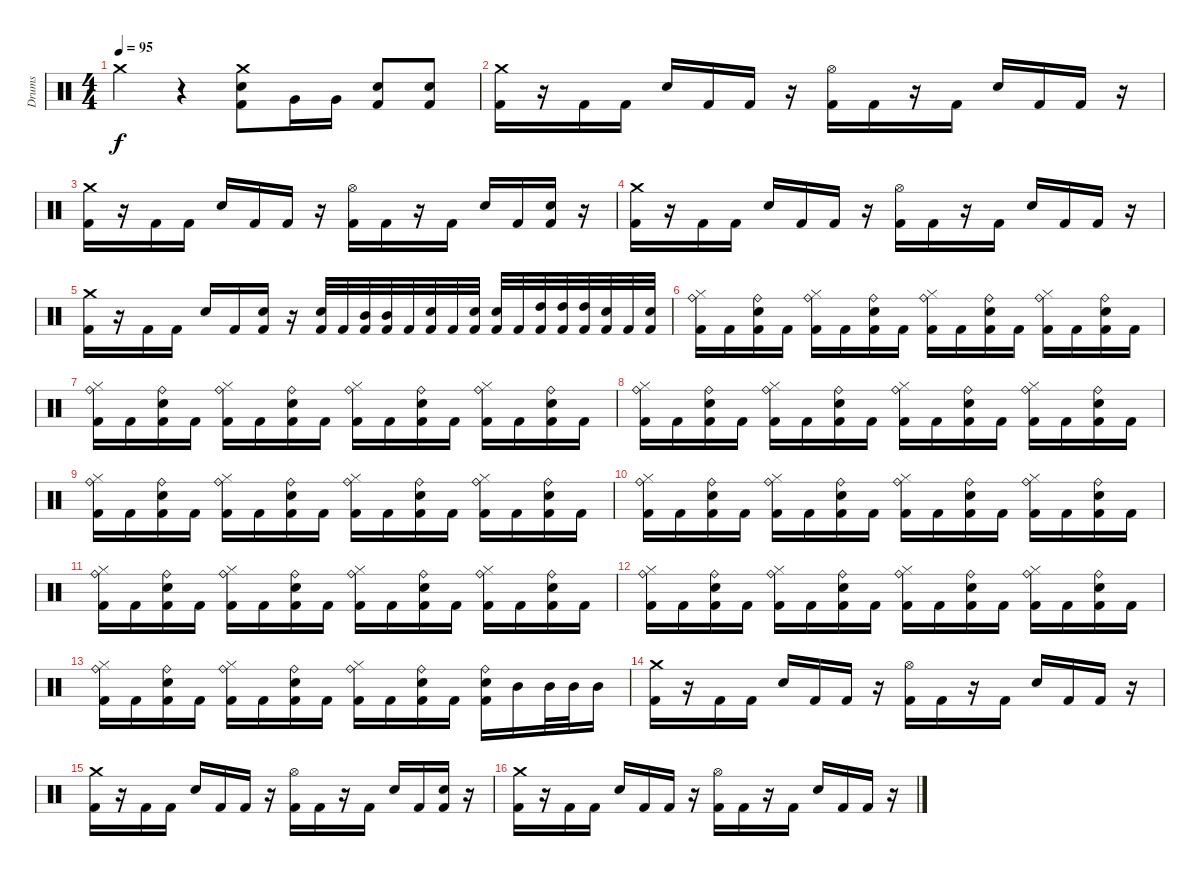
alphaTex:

\track ("Drums" "Drums") {instrument percussion}
\staff {score}
\articulation defaults
\ts (4 4)
\tempo 95
\clef neutral
\ks c "Crash medium (hit)".4{dy f}
r.4 ("Kick (hit) 2" "Snare (hit) 2" "Crash medium (hit)").8 "Very Low Tom (hit)".16 "Very Low Tom (hit)".16 ("Kick (hit) 2" "Snare (hit) 2").8 ("Kick (hit) 2" "Snare (hit) 2").8 |
("Kick (hit) 2" "Crash medium (hit)").16 r.16 "Kick (hit) 2".16 "Kick (hit) 2".16 "Snare (hit) 2".16 "Kick (hit) 2".16 "Kick (hit) 2".16 r.16 ("Kick (hit) 2" "Hi-Hat (open)").16 "Kick (hit) 2".16 r.16 "Kick (hit) 2".16 "Snare (hit) 2".16 "Kick (hit) 2".16 "Kick (hit) 2".16 r.16 |
("Kick (hit) 2" "Crash medium (hit)").16 r.16 "Kick (hit) 2".16 "Kick (hit) 2".16 "Snare (hit) 2".16 "Kick (hit) 2".16 "Kick (hit) 2".16 r.16 ("Kick (hit) 2" "Hi-Hat (open)").16 "Kick (hit) 2".16 r.16 "Kick (hit) 2".16 "Snare (hit) 2".16 "Kick (hit) 2".16 ("Kick (hit) 2" "Snare (hit) 2").16 r.16 |
("Kick (hit) 2" "Crash medium (hit)").16 r.16 "Kick (hit) 2".16 "Kick (hit) 2".16 "Snare (hit) 2".16 "Kick (hit) 2".16 "Kick (hit) 2".16 r.16 ("Kick (hit) 2" "Hi-Hat (open)").16 "Kick (hit) 2".16 r.16 "Kick (hit) 2".16 "Snare (hit) 2".16 "Kick (hit) 2".16 "Kick (hit) 2".16 r.16 |
("Kick (hit) 2" "Crash medium (hit)").16 r.16 "Kick (hit) 2".16 "Kick (hit) 2".16 "Snare (hit) 2".16 "Kick (hit) 2".16 ("Kick (hit) 2" "Snare (hit) 2").16 r.16 ("Kick (hit) 2" "Snare (hit) 2").32 "Kick (hit) 2".32 ("Kick (hit) 2" "Mid Tom (hit)").32 ("Kick (hit) 2" "Mid Tom (hit)").32 "Kick (hit) 2".32 ("Kick (hit) 2" "Snare (hit) 2").32 "Kick (hit) 2".32 ("Kick (hit) 2" "Snare (hit) 2").32 ("Kick (hit) 2" "Snare (hit) 2").32 "Kick (hit) 2".32 ("Kick (hit) 2" "High Tom (hit)").32 ("Kick (hit) 2" "High Tom (hit)").32 ("Kick (hit) 2" "High Tom (hit)").32 ("Kick (hit) 2" "Snare (hit) 2").32 "Kick (hit) 2".32 ("Kick (hit) 2" "Snare (hit) 2").32 |
("Kick (hit) 2" "Hi-Hat (closed)" "Ride (bell)").16 "Kick (hit) 2".16 ("Kick (hit) 2" "Snare (hit) 2" "Ride (bell)").16 "Kick (hit) 2".16 ("Kick (hit) 2" "Hi-Hat (closed)" "Ride (bell)").16 "Kick (hit) 2".16 ("Kick (hit) 2" "Snare (hit) 2" "Ride (bell)").16 "Kick (hit) 2".16 ("Kick (hit) 2" "Hi-Hat (closed)" "Ride (bell)").16 "Kick (hit) 2".16 ("Kick (hit) 2" "Snare (hit) 2" "Ride (bell)").16 "Kick (hit) 2".16 ("Kick (hit) 2" "Hi-Hat (closed)" "Ride (bell)").16 "Kick (hit) 2".16 ("Kick (hit) 2" "Snare (hit) 2" "Ride (bell)").16 "Kick (hit) 2".16 |
("Kick (hit) 2" "Hi-Hat (closed)" "Ride (bell)").16 "Kick (hit) 2".16 ("Kick (hit) 2" "Snare (hit) 2" "Ride (bell)").16 "Kick (hit) 2".16 ("Kick (hit) 2" "Hi-Hat (closed)" "Ride (bell)").16 "Kick (hit) 2".16 ("Kick (hit) 2" "Snare (hit) 2" "Ride (bell)").16 "Kick (hit) 2".16 ("Kick (hit) 2" "Hi-Hat (closed)" "Ride (bell)").16 "Kick (hit) 2".16 ("Kick (hit) 2" "Snare (hit) 2" "Ride (bell)").16 "Kick (hit) 2".16 ("Kick (hit) 2" "Hi-Hat (closed)" "Ride (bell)").16 "Kick (hit) 2".16 ("Kick (hit) 2" "Snare (hit) 2" "Ride (bell)").16 "Kick (hit) 2".16 |
("Kick (hit) 2" "Hi-Hat (closed)" "Ride (bell)").16 "Kick (hit) 2".16 ("Kick (hit) 2" "Snare (hit) 2" "Ride (bell)").16 "Kick (hit) 2".16 ("Kick (hit) 2" "Hi-Hat (closed)" "Ride (bell)").16 "Kick (hit) 2".16 ("Kick (hit) 2" "Snare (hit) 2" "Ride (bell)").16 "Kick (hit) 2".16 ("Kick (hit) 2" "Hi-Hat (closed)" "Ride (bell)").16 "Kick (hit) 2".16 ("Kick (hit) 2" "Snare (hit) 2" "Ride (bell)").16 "Kick (hit) 2".16 ("Kick (hit) 2" "Hi-Hat (closed)" "Ride (bell)").16 "Kick (hit) 2".16 ("Kick (hit) 2" "Snare (hit) 2" "Ride (bell)").16 "Kick (hit) 2".16 |
("Kick (hit) 2" "Hi-Hat (closed)" "Ride (bell)").16 "Kick (hit) 2".16 ("Kick (hit) 2" "Snare (hit) 2" "Ride (bell)").16 "Kick (hit) 2".16 ("Kick (hit) 2" "Hi-Hat (closed)" "Ride (bell)").16 "Kick (hit) 2".16 ("Kick (hit) 2" "Snare (hit) 2" "Ride (bell)").16 "Kick (hit) 2".16 ("Kick (hit) 2" "Hi-Hat (closed)" "Ride (bell)").16 "Kick (hit) 2".16 ("Kick (hit) 2" "Snare (hit) 2" "Ride (bell)").16 "Kick (hit) 2".16 ("Kick (hit) 2" "Hi-Hat (closed)" "Ride (bell)").16 "Kick (hit) 2".16 ("Kick (hit) 2" "Snare (hit) 2" "Ride (bell)").16 "Kick (hit) 2".16 |
("Kick (hit) 2" "Hi-Hat (closed)" "Ride (bell)").16 "Kick (hit) 2".16 ("Kick (hit) 2" "Snare (hit) 2" "Ride (bell)").16 "Kick (hit) 2".16 ("Kick (hit) 2" "Hi-Hat (closed)" "Ride (bell)").16 "Kick (hit) 2".16 ("Kick (hit) 2" "Snare (hit) 2" "Ride (bell)").16 "Kick (hit) 2".16 ("Kick (hit) 2" "Hi-Hat (closed)" "Ride (bell)").16 "Kick (hit) 2".16 ("Kick (hit) 2" "Snare (hit) 2" "Ride (bell)").16 "Kick (hit) 2".16 ("Kick (hit) 2" "Hi-Hat (closed)" "Ride (bell)").16 "Kick (hit) 2".16 ("Kick (hit) 2" "Snare (hit) 2" "Ride (bell)").16 "Kick (hit) 2".16 |
("Kick (hit) 2" "Hi-Hat (closed)" "Ride (bell)").16 "Kick (hit) 2".16 ("Kick (hit) 2" "Snare (hit) 2" "Ride (bell)").16 "Kick (hit) 2".16 ("Kick (hit) 2" "Hi-Hat (closed)" "Ride (bell)").16 "Kick (hit) 2".16 ("Kick (hit) 2" "Snare (hit) 2" "Ride (bell)").16 "Kick (hit) 2".16 ("Kick (hit) 2" "Hi-Hat (closed)" "Ride (bell)").16 "Kick (hit) 2".16 ("Kick (hit) 2" "Snare (hit) 2" "Ride (bell)").16 "Kick (hit) 2".16 ("Kick (hit) 2" "Hi-Hat (closed)" "Ride (bell)").16 "Kick (hit) 2".16 ("Kick (hit) 2" "Snare (hit) 2" "Ride (bell)").16 "Kick (hit) 2".16 |
("Kick (hit) 2" "Hi-Hat (closed)" "Ride (bell)").16 "Kick (hit) 2".16 ("Kick (hit) 2" "Snare (hit) 2" "Ride (bell)").16 "Kick (hit) 2".16 ("Kick (hit) 2" "Hi-Hat (closed)" "Ride (bell)").16 "Kick (hit) 2".16 ("Kick (hit) 2" "Snare (hit) 2" "Ride (bell)").16 "Kick (hit) 2".16 ("Kick (hit) 2" "Hi-Hat (closed)" "Ride (bell)").16 "Kick (hit) 2".16 ("Kick (hit) 2" "Snare (hit) 2" "Ride (bell)").16 "Kick (hit) 2".16 ("Kick (hit) 2" "Hi-Hat (closed)" "Ride (bell)").16 "Kick (hit) 2".16 ("Kick (hit) 2" "Snare (hit) 2" "Ride (bell)").16 "Kick (hit) 2".16 |
("Kick (hit) 2" "Hi-Hat (closed)" "Ride (bell)").16 "Kick (hit) 2".16 ("Kick (hit) 2" "Snare (hit) 2" "Ride (bell)").16 "Kick (hit) 2".16 ("Kick (hit) 2" "Hi-Hat (closed)" "Ride (bell)").16 "Kick (hit) 2".16 ("Kick (hit) 2" "Snare (hit) 2" "Ride (bell)").16 "Kick (hit) 2".16 ("Kick (hit) 2" "Hi-Hat (closed)" "Ride (bell)").16 "Kick (hit) 2".16 ("Kick (hit) 2" "Snare (hit) 2" "Ride (bell)").16 "Kick (hit) 2".16 ("Kick (hit) 2" "Snare (hit) 2" "Ride (bell)").16 "Mid Tom (hit)".16 "Mid Tom (hit)".32 "Mid Tom (hit)".32 "Mid Tom (hit)".16 |
("Kick (hit) 2" "Crash medium (hit)").16 r.16 "Kick (hit) 2".16 "Kick (hit) 2".16 "Snare (hit) 2".16 "Kick (hit) 2".16 "Kick (hit) 2".16 r.16 ("Kick (hit) 2" "Hi-Hat (open)").16 "Kick (hit) 2".16 r.16 "Kick (hit) 2".16 "Snare (hit) 2".16 "Kick (hit) 2".16 "Kick (hit) 2".16 r.16 |
("Kick (hit) 2" "Crash medium (hit)").16 r.16 "Kick (hit) 2".16 "Kick (hit) 2".16 "Snare (hit) 2".16 "Kick (hit) 2".16 "Kick (hit) 2".16 r.16 ("Kick (hit) 2" "Hi-Hat (open)").16 "Kick (hit) 2".16 r.16 "Kick (hit) 2".16 "Snare (hit) 2".16 "Kick (hit) 2".16 ("Kick (hit) 2" "Snare (hit) 2").16 r.16 |
("Kick (hit) 2" "Crash medium (hit)").16 r.16 "Kick (hit) 2".16 "Kick (hit) 2".16 "Snare (hit) 2".16 "Kick (hit) 2".16 "Kick (hit) 2".16 r.16 ("Kick (hit) 2" "Hi-Hat (open)").16 "Kick (hit) 2".16 r.16 "Kick (hit) 2".16 "Snare (hit) 2".16 "Kick (hit) 2".16 "Kick (hit) 2".16 r.16
